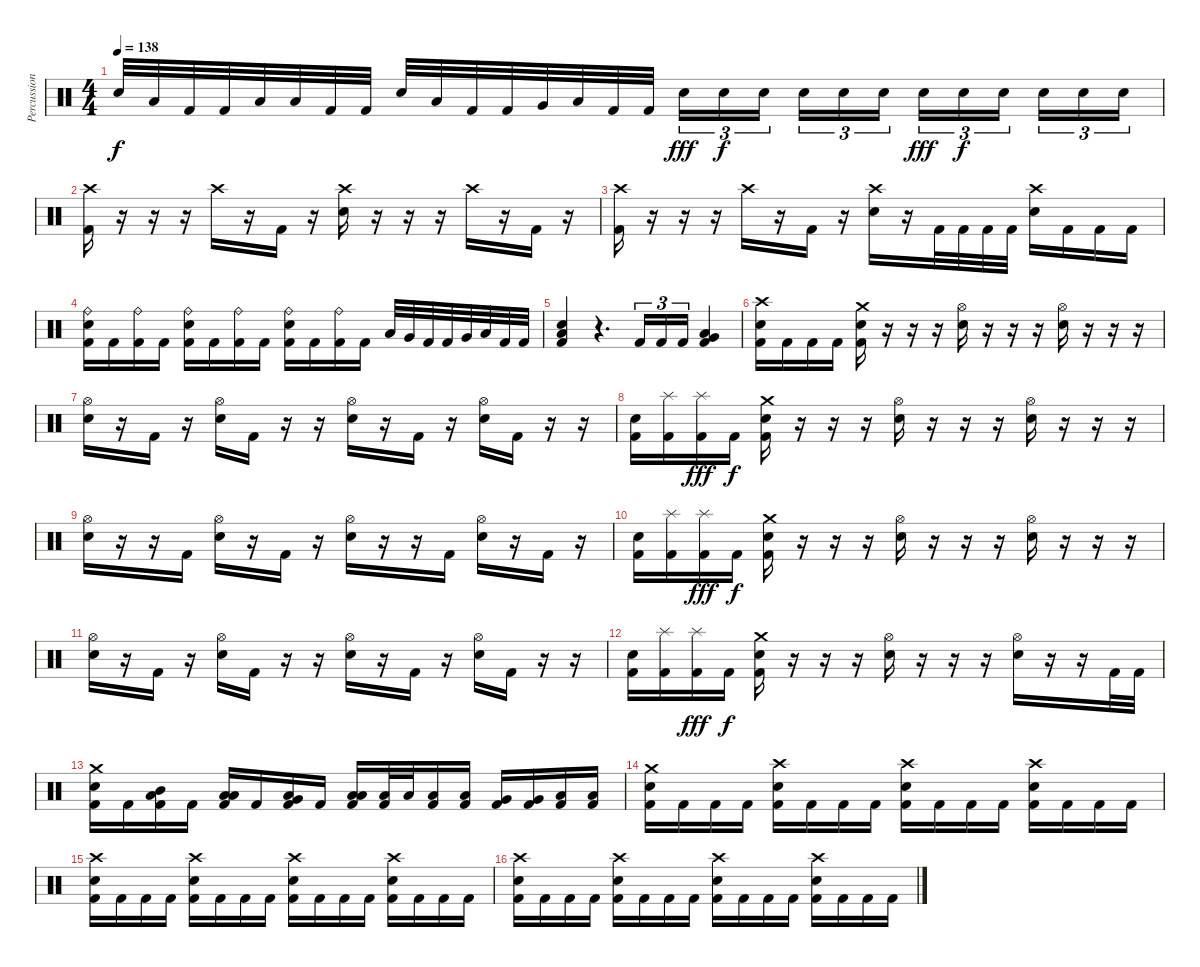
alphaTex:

\track ("Percussion" "Percussion") {instrument percussion}
\staff {score}
\articulation defaults
\ts (4 4)
\tempo 138
\clef neutral
\ks c "Electric Snare (hit)".32{dy f} "Low Floor Tom (hit)".32 "Kick (hit) 2".32 "Kick (hit) 2".32 "Low Tom (hit)".32 "Low Floor Tom (hit)".32 "Kick (hit) 2".32 "Kick (hit) 2".32 "Electric Snare (hit)".32 "Low Floor Tom (hit)".32 "Kick (hit) 2".32 "Kick (hit) 2".32 "Very Low Tom (hit)".32 "Low Floor Tom (hit)".32 "Kick (hit) 2".32 "Kick (hit) 2".32 "Electric Snare (hit)".16{tu (3 2) dy fff} "Electric Snare (hit)".16{tu (3 2) dy f} "Electric Snare (hit)".16{tu (3 2) beam splitsecondary} "Electric Snare (hit)".16{tu (3 2)} "Electric Snare (hit)".16{tu (3 2)} "Electric Snare (hit)".16{tu (3 2)} "Electric Snare (hit)".16{tu (3 2) dy fff} "Electric Snare (hit)".16{tu (3 2) dy f} "Electric Snare (hit)".16{tu (3 2) beam splitsecondary} "Electric Snare (hit)".16{tu (3 2)} "Electric Snare (hit)".16{tu (3 2)} "Electric Snare (hit)".16{tu (3 2)}
|
("Crash high (hit)" "Kick (hit) 2").16 r.16 r.16 r.16 "Crash high (hit)".16 r.16 "Kick (hit) 2".16 r.16 ("Crash high (hit)" "Electric Snare (hit)").16 r.16 r.16 r.16 "Crash high (hit)".16 r.16 "Kick (hit) 2".16 r.16 |
("Crash high (hit)" "Kick (hit) 2").16 r.16 r.16 r.16 "Crash high (hit)".16 r.16 "Kick (hit) 2".16 r.16 ("Crash high (hit)" "Electric Snare (hit)").16 r.16 "Kick (hit) 2".32 "Kick (hit) 2".32 "Kick (hit) 2".32 "Kick (hit) 2".32 ("Crash high (hit)" "Electric Snare (hit)").16 "Kick (hit) 2".16 "Kick (hit) 2".16 "Kick (hit) 2".16 |
("Ride (bell)" "Electric Snare (hit)" "Kick (hit) 2").16 "Kick (hit) 2".16 ("Ride (bell)" "Kick (hit) 2").16 "Kick (hit) 2".16 ("Ride (bell)" "Electric Snare (hit)" "Kick (hit) 2").16 "Kick (hit) 2".16 ("Ride (bell)" "Kick (hit) 2").16 "Kick (hit) 2".16 ("Ride (bell)" "Electric Snare (hit)" "Kick (hit) 2").16 "Kick (hit) 2".16 ("Ride (bell)" "Kick (hit) 2").16 "Kick (hit) 2".16 "Low Tom (hit)".32 "Very Low Tom (hit)".32 "Kick (hit) 2".32 "Kick (hit) 2".32 "Very Low Tom (hit)".32 "Low Floor Tom (hit)".32 "Kick (hit) 2".32 "Kick (hit) 2".32 |
("Electric Snare (hit)" "Low Floor Tom (hit)" "Kick (hit) 2").4 r.4{d} "Kick (hit) 2".16{tu (3 2)} "Kick (hit) 2".16{tu (3 2)} "Kick (hit) 2".16{tu (3 2)} ("Very Low Tom (hit)" "Low Floor Tom (hit)" "Kick (hit) 2").4 |
("Crash high (hit)" "Electric Snare (hit)" "Kick (hit) 2").16 "Kick (hit) 2".16 "Kick (hit) 2".16 "Kick (hit) 2".16 ("Crash medium (hit)" "Electric Snare (hit)" "Kick (hit) 2").16 r.16 r.16 r.16 ("Hi-Hat (open)" "Electric Snare (hit)").16 r.16 r.16 r.16 ("Hi-Hat (open)" "Electric Snare (hit)").16 r.16 r.16 r.16 |
("Hi-Hat (open)" "Electric Snare (hit)").16 r.16 "Kick (hit) 2".16 r.16 ("Hi-Hat (open)" "Electric Snare (hit)").16 "Kick (hit) 2".16 r.16 r.16 ("Hi-Hat (open)" "Electric Snare (hit)").16 r.16 "Kick (hit) 2".16 r.16 ("Hi-Hat (open)" "Electric Snare (hit)").16 "Kick (hit) 2".16 r.16 r.16 |
("Electric Snare (hit)" "Kick (hit) 2").16 ("Splash (hit)" "Kick (hit) 2").16 ("Splash (hit)" "Kick (hit) 2").16{dy fff} "Kick (hit) 2".16{dy f} ("Crash medium (hit)" "Electric Snare (hit)" "Kick (hit) 2").16 r.16 r.16 r.16 ("Hi-Hat (open)" "Electric Snare (hit)").16 r.16 r.16 r.16 ("Hi-Hat (open)" "Electric Snare (hit)").16 r.16 r.16 r.16 |
("Hi-Hat (open)" "Electric Snare (hit)").16 r.16 r.16 "Kick (hit) 2".16 ("Hi-Hat (open)" "Electric Snare (hit)").16 r.16 "Kick (hit) 2".16 r.16 ("Hi-Hat (open)" "Electric Snare (hit)").16 r.16 r.16 "Kick (hit) 2".16 ("Hi-Hat (open)" "Electric Snare (hit)").16 r.16 "Kick (hit) 2".16 r.16 |
("Electric Snare (hit)" "Kick (hit) 2").16 ("Splash (hit)" "Kick (hit) 2").16 ("Splash (hit)" "Kick (hit) 2").16{dy fff} "Kick (hit) 2".16{dy f} ("Crash medium (hit)" "Electric Snare (hit)" "Kick (hit) 2").16 r.16 r.16 r.16 ("Hi-Hat (open)" "Electric Snare (hit)").16 r.16 r.16 r.16 ("Hi-Hat (open)" "Electric Snare (hit)").16 r.16 r.16 r.16 |
("Hi-Hat (open)" "Electric Snare (hit)").16 r.16 "Kick (hit) 2".16 r.16 ("Hi-Hat (open)" "Electric Snare (hit)").16 "Kick (hit) 2".16 r.16 r.16 ("Hi-Hat (open)" "Electric Snare (hit)").16 r.16 "Kick (hit) 2".16 r.16 ("Hi-Hat (open)" "Electric Snare (hit)").16 "Kick (hit) 2".16 r.16 r.16 |
("Electric Snare (hit)" "Kick (hit) 2").16 ("Splash (hit)" "Kick (hit) 2").16 ("Splash (hit)" "Kick (hit) 2").16{dy fff} "Kick (hit) 2".16{dy f} ("Crash medium (hit)" "Electric Snare (hit)" "Kick (hit) 2").16 r.16 r.16 r.16 ("Hi-Hat (open)" "Electric Snare (hit)").16 r.16 r.16 r.16 ("Hi-Hat (open)" "Electric Snare (hit)").16 r.16 r.16 "Kick (hit) 2".32 "Kick (hit) 2".32 |
("Crash medium (hit)" "Electric Snare (hit)" "Kick (hit) 2").16 "Kick (hit) 2".16 ("Mid Tom (hit)" "Low Floor Tom (hit)" "Kick (hit) 2").16 "Kick (hit) 2".16 ("Low Tom (hit)" "Low Floor Tom (hit)" "Kick (hit) 2").16 "Kick (hit) 2".16 ("Very Low Tom (hit)" "Low Floor Tom (hit)" "Kick (hit) 2").16 "Kick (hit) 2".16 ("Low Floor Tom (hit)" "Low Floor Tom (hit)" "Kick (hit) 2").16 ("Low Tom (hit)" "Kick (hit) 2").32 "Low Tom (hit)".32 ("Low Tom (hit)" "Kick (hit) 2").16 ("Low Tom (hit)" "Kick (hit) 2").16 ("Very Low Tom (hit)" "Kick (hit) 2").16 ("Very Low Tom (hit)" "Kick (hit) 2").16 ("Low Floor Tom (hit)" "Kick (hit) 2").16 ("Low Floor Tom (hit)" "Kick (hit) 2").16 |
("Crash medium (hit)" "Electric Snare (hit)" "Kick (hit) 2").16 "Kick (hit) 2".16 "Kick (hit) 2".16 "Kick (hit) 2".16 ("Crash high (hit)" "Electric Snare (hit)" "Kick (hit) 2").16 "Kick (hit) 2".16 "Kick (hit) 2".16 "Kick (hit) 2".16 ("Crash high (hit)" "Electric Snare (hit)" "Kick (hit) 2").16 "Kick (hit) 2".16 "Kick (hit) 2".16 "Kick (hit) 2".16 ("Crash high (hit)" "Electric Snare (hit)" "Kick (hit) 2").16 "Kick (hit) 2".16 "Kick (hit) 2".16 "Kick (hit) 2".16 |
("Crash high (hit)" "Electric Snare (hit)" "Kick (hit) 2").16 "Kick (hit) 2".16 "Kick (hit) 2".16 "Kick (hit) 2".16 ("Crash high (hit)" "Electric Snare (hit)" "Kick (hit) 2").16 "Kick (hit) 2".16 "Kick (hit) 2".16 "Kick (hit) 2".16 ("Crash high (hit)" "Electric Snare (hit)" "Kick (hit) 2").16 "Kick (hit) 2".16 "Kick (hit) 2".16 "Kick (hit) 2".16 ("Crash high (hit)" "Electric Snare (hit)" "Kick (hit) 2").16 "Kick (hit) 2".16 "Kick (hit) 2".16 "Kick (hit) 2".16 |
("Crash high (hit)" "Electric Snare (hit)" "Kick (hit) 2").16 "Kick (hit) 2".16 "Kick (hit) 2".16 "Kick (hit) 2".16 ("Crash high (hit)" "Electric Snare (hit)" "Kick (hit) 2").16 "Kick (hit) 2".16 "Kick (hit) 2".16 "Kick (hit) 2".16 ("Crash high (hit)" "Electric Snare (hit)" "Kick (hit) 2").16 "Kick (hit) 2".16 "Kick (hit) 2".16 "Kick (hit) 2".16 ("Crash high (hit)" "Electric Snare (hit)" "Kick (hit) 2").16 "Kick (hit) 2".16 "Kick (hit) 2".16 "Kick (hit) 2".16
